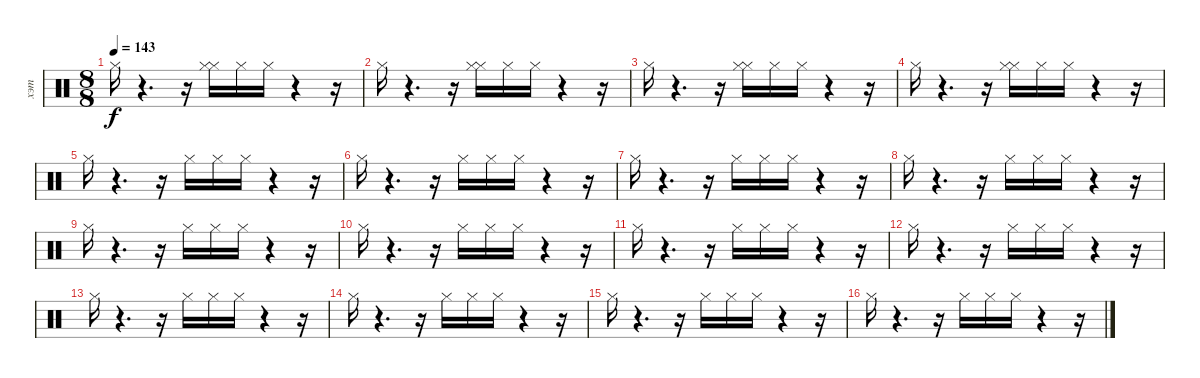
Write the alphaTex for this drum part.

\track ("хэт" "хэт") {instrument percussion}
\staff {score}
\articulation defaults
\ts (8 8)
\tempo 143
\clef neutral
\ks c "Hi-Hat (closed)".16{dy f}
r.4{d} r.16 ("Hi-Hat (closed)" "Hi-Hat (closed)").16 "Hi-Hat (closed)".16 "Hi-Hat (closed)".16 r.4 r.16 |
"Hi-Hat (closed)".16 r.4{d} r.16 ("Hi-Hat (closed)" "Hi-Hat (closed)").16 "Hi-Hat (closed)".16 "Hi-Hat (closed)".16 r.4 r.16 |
"Hi-Hat (closed)".16 r.4{d} r.16 ("Hi-Hat (closed)" "Hi-Hat (closed)").16 "Hi-Hat (closed)".16 "Hi-Hat (closed)".16 r.4 r.16 |
"Hi-Hat (closed)".16 r.4{d} r.16 ("Hi-Hat (closed)" "Hi-Hat (closed)").16 "Hi-Hat (closed)".16 "Hi-Hat (closed)".16 r.4 r.16 |
"Hi-Hat (closed)".16 r.4{d} r.16 "Hi-Hat (closed)".16 "Hi-Hat (closed)".16 "Hi-Hat (closed)".16 r.4 r.16 |
"Hi-Hat (closed)".16 r.4{d} r.16 "Hi-Hat (closed)".16 "Hi-Hat (closed)".16 "Hi-Hat (closed)".16 r.4 r.16 |
"Hi-Hat (closed)".16 r.4{d} r.16 "Hi-Hat (closed)".16 "Hi-Hat (closed)".16 "Hi-Hat (closed)".16 r.4 r.16 |
"Hi-Hat (closed)".16 r.4{d} r.16 "Hi-Hat (closed)".16 "Hi-Hat (closed)".16 "Hi-Hat (closed)".16 r.4 r.16 |
"Hi-Hat (closed)".16 r.4{d} r.16 "Hi-Hat (closed)".16 "Hi-Hat (closed)".16 "Hi-Hat (closed)".16 r.4 r.16 |
"Hi-Hat (closed)".16 r.4{d} r.16 "Hi-Hat (closed)".16 "Hi-Hat (closed)".16 "Hi-Hat (closed)".16 r.4 r.16 |
"Hi-Hat (closed)".16 r.4{d} r.16 "Hi-Hat (closed)".16 "Hi-Hat (closed)".16 "Hi-Hat (closed)".16 r.4 r.16 |
"Hi-Hat (closed)".16 r.4{d} r.16 "Hi-Hat (closed)".16 "Hi-Hat (closed)".16 "Hi-Hat (closed)".16 r.4 r.16 |
"Hi-Hat (closed)".16 r.4{d} r.16 "Hi-Hat (closed)".16 "Hi-Hat (closed)".16 "Hi-Hat (closed)".16 r.4 r.16 |
"Hi-Hat (closed)".16 r.4{d} r.16 "Hi-Hat (closed)".16 "Hi-Hat (closed)".16 "Hi-Hat (closed)".16 r.4 r.16 |
"Hi-Hat (closed)".16 r.4{d} r.16 "Hi-Hat (closed)".16 "Hi-Hat (closed)".16 "Hi-Hat (closed)".16 r.4 r.16 |
"Hi-Hat (closed)".16 r.4{d} r.16 "Hi-Hat (closed)".16 "Hi-Hat (closed)".16 "Hi-Hat (closed)".16 r.4 r.16
